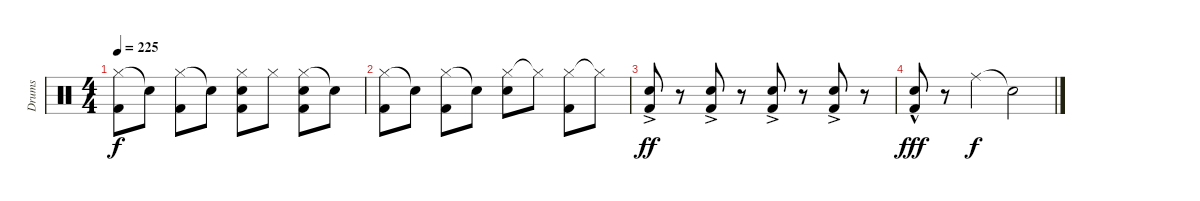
\track ("Drums" "Drums") {instrument percussion}
\staff {score}
\articulation defaults
\ts (4 4)
\tempo 225
\clef neutral
\ks c
("Hi-Hat (closed)" "Kick (hit) 2").8{dy f} "Snare (hit)"{t}.8 ("Hi-Hat (closed)" "Kick (hit) 2").8 "Snare (hit)"{t}.8 ("Hi-Hat (closed)" "Snare (hit) 2" "Kick (hit) 2").8 "Hi-Hat (closed)".8 ("Hi-Hat (closed)" "Snare (hit) 2" "Kick (hit) 2").8 "Snare (hit)"{t}.8 |
("Hi-Hat (closed)" "Kick (hit) 2").8 "Snare (hit)"{t}.8 ("Hi-Hat (closed)" "Kick (hit) 2").8 "Snare (hit)"{t}.8 ("Hi-Hat (closed)" "Snare (hit) 2").8 "Hi-Hat (closed)"{t}.8 ("Hi-Hat (closed)" "Kick (hit) 2").8 "Hi-Hat (closed)"{t}.8 |
("Snare (hit) 2" "Kick (hit) 2"{ac}).8{dy ff} r.8 ("Snare (hit) 2" "Kick (hit) 2"{ac}).8 r.8 ("Snare (hit) 2" "Kick (hit) 2"{ac}).8 r.8 ("Snare (hit) 2" "Kick (hit) 2"{ac}).8 r.8 |
("Snare (hit) 2" "Kick (hit) 2"{hac}).8{dy fff} r.8 "Ride (middle)".4{dy f} "Snare (hit)"{t}.2
